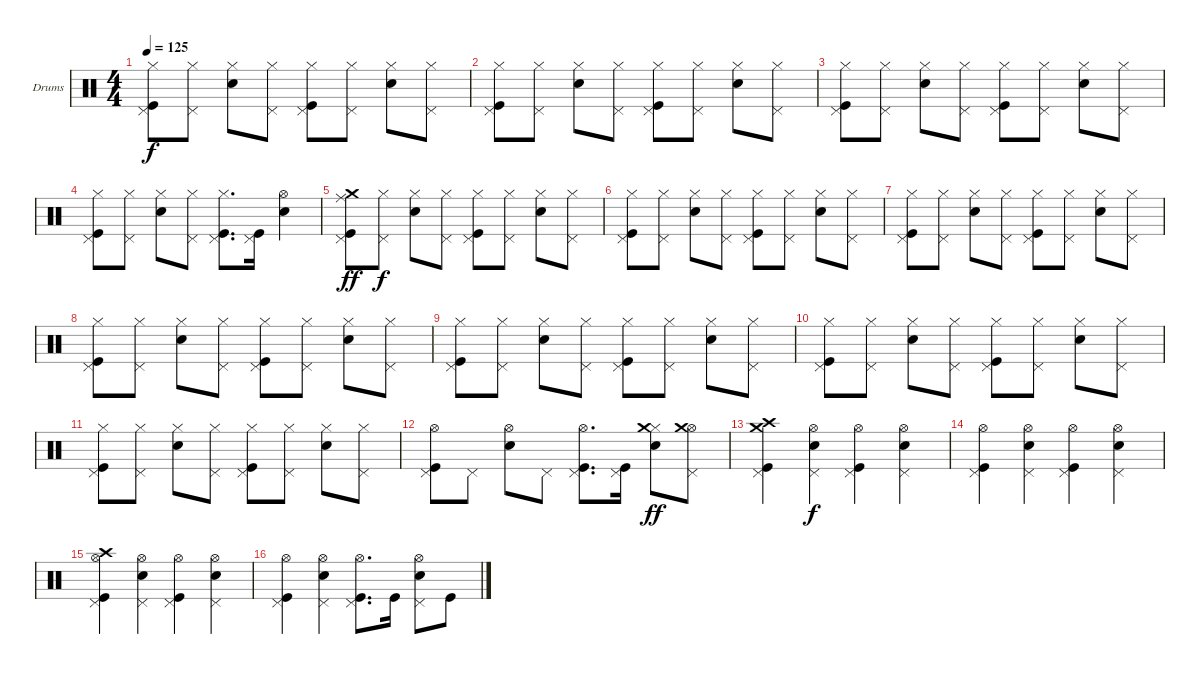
\defaultSystemsLayout 4
\bracketExtendMode groupsimilarinstruments
\firstSystemTrackNameOrientation horizontal
\otherSystemsTrackNameOrientation horizontal
\track ("Drums" "Drums") {instrument percussion}
\staff {score}
\articulation defaults
\ts (4 4)
\tempo 125
\clef neutral
\ks c
("Pedal Hi-Hat (hit)" "Kick (hit)" "Hi-Hat (closed)").8{dy f} ("Hi-Hat (closed)" "Pedal Hi-Hat (hit)").8 ("Snare (hit) 2" "Hi-Hat (closed)").8 ("Hi-Hat (closed)" "Pedal Hi-Hat (hit)").8 ("Pedal Hi-Hat (hit)" "Kick (hit)" "Hi-Hat (closed)").8 ("Hi-Hat (closed)" "Pedal Hi-Hat (hit)").8 ("Snare (hit) 2" "Hi-Hat (closed)").8 ("Hi-Hat (closed)" "Pedal Hi-Hat (hit)").8 |
("Pedal Hi-Hat (hit)" "Kick (hit)" "Hi-Hat (closed)").8 ("Hi-Hat (closed)" "Pedal Hi-Hat (hit)").8 ("Snare (hit) 2" "Hi-Hat (closed)").8 ("Hi-Hat (closed)" "Pedal Hi-Hat (hit)").8 ("Pedal Hi-Hat (hit)" "Kick (hit)" "Hi-Hat (closed)").8 ("Hi-Hat (closed)" "Pedal Hi-Hat (hit)").8 ("Snare (hit) 2" "Hi-Hat (closed)").8 ("Hi-Hat (closed)" "Pedal Hi-Hat (hit)").8 |
("Pedal Hi-Hat (hit)" "Kick (hit)" "Hi-Hat (closed)").8 ("Hi-Hat (closed)" "Pedal Hi-Hat (hit)").8 ("Snare (hit) 2" "Hi-Hat (closed)").8 ("Hi-Hat (closed)" "Pedal Hi-Hat (hit)").8 ("Pedal Hi-Hat (hit)" "Kick (hit)" "Hi-Hat (closed)").8 ("Hi-Hat (closed)" "Pedal Hi-Hat (hit)").8 ("Snare (hit) 2" "Hi-Hat (closed)").8 ("Hi-Hat (closed)" "Pedal Hi-Hat (hit)").8 |
("Pedal Hi-Hat (hit)" "Kick (hit)" "Hi-Hat (closed)").8 ("Hi-Hat (closed)" "Pedal Hi-Hat (hit)").8 ("Snare (hit) 2" "Hi-Hat (closed)").8 ("Hi-Hat (closed)" "Pedal Hi-Hat (hit)").8 ("Pedal Hi-Hat (hit)" "Kick (hit)" "Hi-Hat (closed)").8{d} ("Pedal Hi-Hat (hit)" "Kick (hit)").16 ("Snare (hit) 2" "Hi-Hat (open)").4 |
("Pedal Hi-Hat (hit)" "Kick (hit)" "Crash medium (hit)" "Ride (middle)").8{dy ff} ("Hi-Hat (closed)" "Pedal Hi-Hat (hit)").8{dy f} ("Snare (hit) 2" "Hi-Hat (closed)").8 ("Hi-Hat (closed)" "Pedal Hi-Hat (hit)").8 ("Pedal Hi-Hat (hit)" "Kick (hit)" "Hi-Hat (closed)").8 ("Hi-Hat (closed)" "Pedal Hi-Hat (hit)").8 ("Snare (hit) 2" "Hi-Hat (closed)").8 ("Hi-Hat (closed)" "Pedal Hi-Hat (hit)").8 |
("Pedal Hi-Hat (hit)" "Kick (hit)" "Hi-Hat (closed)").8 ("Hi-Hat (closed)" "Pedal Hi-Hat (hit)").8 ("Snare (hit) 2" "Hi-Hat (closed)").8 ("Hi-Hat (closed)" "Pedal Hi-Hat (hit)").8 ("Pedal Hi-Hat (hit)" "Kick (hit)" "Hi-Hat (closed)").8 ("Hi-Hat (closed)" "Pedal Hi-Hat (hit)").8 ("Snare (hit) 2" "Hi-Hat (closed)").8 ("Hi-Hat (closed)" "Pedal Hi-Hat (hit)").8 |
("Pedal Hi-Hat (hit)" "Kick (hit)" "Hi-Hat (closed)").8 ("Hi-Hat (closed)" "Pedal Hi-Hat (hit)").8 ("Snare (hit) 2" "Hi-Hat (closed)").8 ("Hi-Hat (closed)" "Pedal Hi-Hat (hit)").8 ("Pedal Hi-Hat (hit)" "Kick (hit)" "Hi-Hat (closed)").8 ("Hi-Hat (closed)" "Pedal Hi-Hat (hit)").8 ("Snare (hit) 2" "Hi-Hat (closed)").8 ("Hi-Hat (closed)" "Pedal Hi-Hat (hit)").8 |
("Pedal Hi-Hat (hit)" "Kick (hit)" "Hi-Hat (closed)").8 ("Hi-Hat (closed)" "Pedal Hi-Hat (hit)").8 ("Snare (hit) 2" "Hi-Hat (closed)").8 ("Hi-Hat (closed)" "Pedal Hi-Hat (hit)").8 ("Pedal Hi-Hat (hit)" "Kick (hit)" "Hi-Hat (closed)").8 ("Hi-Hat (closed)" "Pedal Hi-Hat (hit)").8 ("Snare (hit) 2" "Hi-Hat (closed)").8 ("Hi-Hat (closed)" "Pedal Hi-Hat (hit)").8 |
("Pedal Hi-Hat (hit)" "Kick (hit)" "Hi-Hat (closed)").8 ("Hi-Hat (closed)" "Pedal Hi-Hat (hit)").8 ("Snare (hit) 2" "Hi-Hat (closed)").8 ("Hi-Hat (closed)" "Pedal Hi-Hat (hit)").8 ("Pedal Hi-Hat (hit)" "Kick (hit)" "Hi-Hat (closed)").8 ("Hi-Hat (closed)" "Pedal Hi-Hat (hit)").8 ("Snare (hit) 2" "Hi-Hat (closed)").8 ("Hi-Hat (closed)" "Pedal Hi-Hat (hit)").8 |
("Pedal Hi-Hat (hit)" "Kick (hit)" "Hi-Hat (closed)").8 ("Hi-Hat (closed)" "Pedal Hi-Hat (hit)").8 ("Snare (hit) 2" "Hi-Hat (closed)").8 ("Hi-Hat (closed)" "Pedal Hi-Hat (hit)").8 ("Pedal Hi-Hat (hit)" "Kick (hit)" "Hi-Hat (closed)").8 ("Hi-Hat (closed)" "Pedal Hi-Hat (hit)").8 ("Snare (hit) 2" "Hi-Hat (closed)").8 ("Hi-Hat (closed)" "Pedal Hi-Hat (hit)").8 |
("Pedal Hi-Hat (hit)" "Kick (hit)" "Hi-Hat (closed)").8 ("Hi-Hat (closed)" "Pedal Hi-Hat (hit)").8 ("Snare (hit) 2" "Hi-Hat (closed)").8 ("Hi-Hat (closed)" "Pedal Hi-Hat (hit)").8 ("Pedal Hi-Hat (hit)" "Kick (hit)" "Hi-Hat (closed)").8 ("Hi-Hat (closed)" "Pedal Hi-Hat (hit)").8 ("Snare (hit) 2" "Hi-Hat (closed)").8 ("Hi-Hat (closed)" "Pedal Hi-Hat (hit)").8 |
("Pedal Hi-Hat (hit)" "Kick (hit)" "Hi-Hat (open)").8 "Pedal Hi-Hat (hit)".8 ("Snare (hit) 2" "Hi-Hat (open)").8 "Pedal Hi-Hat (hit)".8 ("Pedal Hi-Hat (hit)" "Kick (hit)" "Hi-Hat (open)").8{d} ("Pedal Hi-Hat (hit)" "Kick (hit)").16 ("Snare (hit) 2" "Hi-Hat (closed)" "Crash medium (hit)").8{dy ff} ("Hi-Hat (open)" "Pedal Hi-Hat (hit)" "Crash medium (hit)").8 |
("Kick (hit)" "Pedal Hi-Hat (hit)" "Crash medium (hit)" "Crash high (hit)").4 ("Snare (hit) 2" "Pedal Hi-Hat (hit)" "Hi-Hat (open)").4{dy f} ("Kick (hit)" "Pedal Hi-Hat (hit)" "Hi-Hat (open)").4 ("Snare (hit) 2" "Pedal Hi-Hat (hit)" "Hi-Hat (open)").4 |
("Kick (hit)" "Pedal Hi-Hat (hit)" "Hi-Hat (open)").4 ("Snare (hit) 2" "Pedal Hi-Hat (hit)" "Hi-Hat (open)").4 ("Kick (hit)" "Pedal Hi-Hat (hit)" "Hi-Hat (open)").4 ("Snare (hit) 2" "Pedal Hi-Hat (hit)" "Hi-Hat (open)").4 |
("Kick (hit)" "Pedal Hi-Hat (hit)" "Hi-Hat (open)" "Crash high (hit)").4 ("Snare (hit) 2" "Pedal Hi-Hat (hit)" "Hi-Hat (open)").4 ("Kick (hit)" "Pedal Hi-Hat (hit)" "Hi-Hat (open)").4 ("Snare (hit) 2" "Pedal Hi-Hat (hit)" "Hi-Hat (open)").4 |
("Kick (hit)" "Pedal Hi-Hat (hit)" "Hi-Hat (open)").4 ("Snare (hit) 2" "Pedal Hi-Hat (hit)" "Hi-Hat (open)").4 ("Kick (hit)" "Pedal Hi-Hat (hit)" "Hi-Hat (open)").8{d} "Kick (hit)".16 ("Snare (hit) 2" "Pedal Hi-Hat (hit)" "Hi-Hat (open)").8 "Kick (hit)".8
